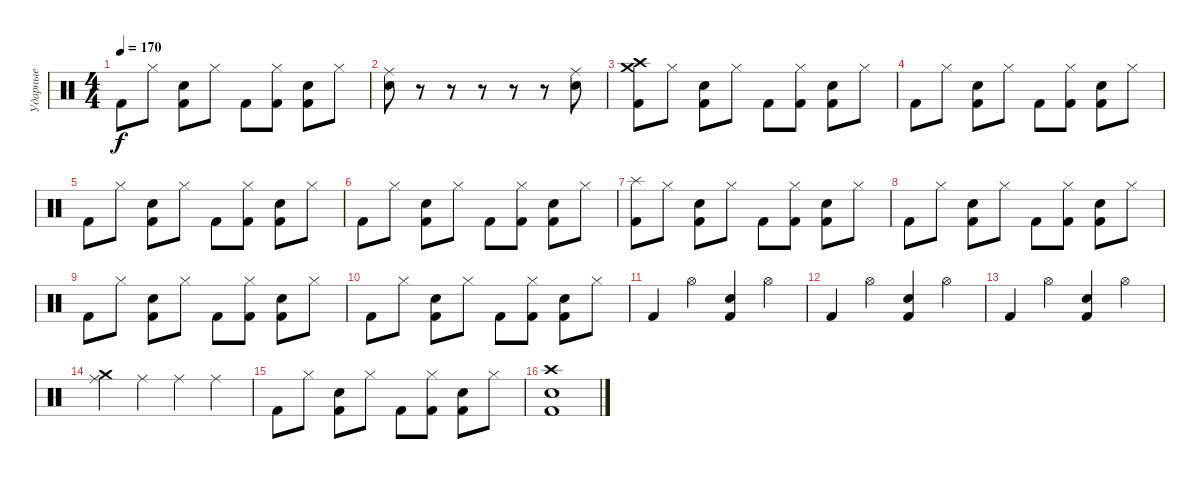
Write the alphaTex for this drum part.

\track ("Ударные" "Ударные") {instrument percussion}
\staff {score}
\articulation defaults
\ts (4 4)
\tempo 170
\clef neutral
\ks c "Kick (hit) 2".8{dy f} "Hi-Hat (closed)".8
("Kick (hit) 2" "Snare (hit) 2").8 "Hi-Hat (closed)".8 "Kick (hit) 2".8 ("Hi-Hat (closed)" "Kick (hit) 2").8 ("Kick (hit) 2" "Snare (hit) 2").8 "Hi-Hat (closed)".8 |
("Snare (hit) 2" "Ride (middle)").8 r.8 r.8 r.8 r.8 r.8 ("Snare (hit) 2" "Ride (middle)").8 |
("Kick (hit) 2" "Crash high (hit)" "Crash medium (hit)").8 "Hi-Hat (closed)".8 ("Kick (hit) 2" "Snare (hit) 2").8 "Hi-Hat (closed)".8 "Kick (hit) 2".8 ("Hi-Hat (closed)" "Kick (hit) 2").8 ("Kick (hit) 2" "Snare (hit) 2").8 "Hi-Hat (closed)".8 |
"Kick (hit) 2".8 "Hi-Hat (closed)".8 ("Kick (hit) 2" "Snare (hit) 2").8 "Hi-Hat (closed)".8 "Kick (hit) 2".8 ("Hi-Hat (closed)" "Kick (hit) 2").8 ("Kick (hit) 2" "Snare (hit) 2").8 "Hi-Hat (closed)".8 |
"Kick (hit) 2".8 "Hi-Hat (closed)".8 ("Kick (hit) 2" "Snare (hit) 2").8 "Hi-Hat (closed)".8 "Kick (hit) 2".8 ("Hi-Hat (closed)" "Kick (hit) 2").8 ("Kick (hit) 2" "Snare (hit) 2").8 "Hi-Hat (closed)".8 |
"Kick (hit) 2".8 "Hi-Hat (closed)".8 ("Kick (hit) 2" "Snare (hit) 2").8 "Hi-Hat (closed)".8 "Kick (hit) 2".8 ("Hi-Hat (closed)" "Kick (hit) 2").8 ("Kick (hit) 2" "Snare (hit) 2").8 "Hi-Hat (closed)".8 |
("Kick (hit) 2" "Splash (hit)").8 "Hi-Hat (closed)".8 ("Kick (hit) 2" "Snare (hit) 2").8 "Hi-Hat (closed)".8 "Kick (hit) 2".8 ("Hi-Hat (closed)" "Kick (hit) 2").8 ("Kick (hit) 2" "Snare (hit) 2").8 "Hi-Hat (closed)".8 |
"Kick (hit) 2".8 "Hi-Hat (closed)".8 ("Kick (hit) 2" "Snare (hit) 2").8 "Hi-Hat (closed)".8 "Kick (hit) 2".8 ("Hi-Hat (closed)" "Kick (hit) 2").8 ("Kick (hit) 2" "Snare (hit) 2").8 "Hi-Hat (closed)".8 |
"Kick (hit) 2".8 "Hi-Hat (closed)".8 ("Kick (hit) 2" "Snare (hit) 2").8 "Hi-Hat (closed)".8 "Kick (hit) 2".8 ("Hi-Hat (closed)" "Kick (hit) 2").8 ("Kick (hit) 2" "Snare (hit) 2").8 "Hi-Hat (closed)".8 |
"Kick (hit) 2".8 "Hi-Hat (closed)".8 ("Kick (hit) 2" "Snare (hit) 2").8 "Hi-Hat (closed)".8 "Kick (hit) 2".8 ("Hi-Hat (closed)" "Kick (hit) 2").8 ("Kick (hit) 2" "Snare (hit) 2").8 "Hi-Hat (closed)".8 |
"Kick (hit) 2".4 "Hi-Hat (open)".4 ("Snare (hit) 2" "Kick (hit) 2").4 "Hi-Hat (open)".4 |
"Kick (hit) 2".4 "Hi-Hat (open)".4 ("Snare (hit) 2" "Kick (hit) 2").4 "Hi-Hat (open)".4 |
"Kick (hit) 2".4 "Hi-Hat (open)".4 ("Snare (hit) 2" "Kick (hit) 2").4 "Hi-Hat (open)".4 |
("Ride (middle)" "Crash medium (hit)").4 "Ride (middle)".4 "Ride (middle)".4 "Ride (middle)".4 |
"Kick (hit) 2".8 "Hi-Hat (closed)".8 ("Kick (hit) 2" "Snare (hit) 2").8 "Hi-Hat (closed)".8 "Kick (hit) 2".8 ("Hi-Hat (closed)" "Kick (hit) 2").8 ("Kick (hit) 2" "Snare (hit) 2").8 "Hi-Hat (closed)".8 |
("Crash high (hit)" "Snare (hit) 2" "Kick (hit) 2").1
